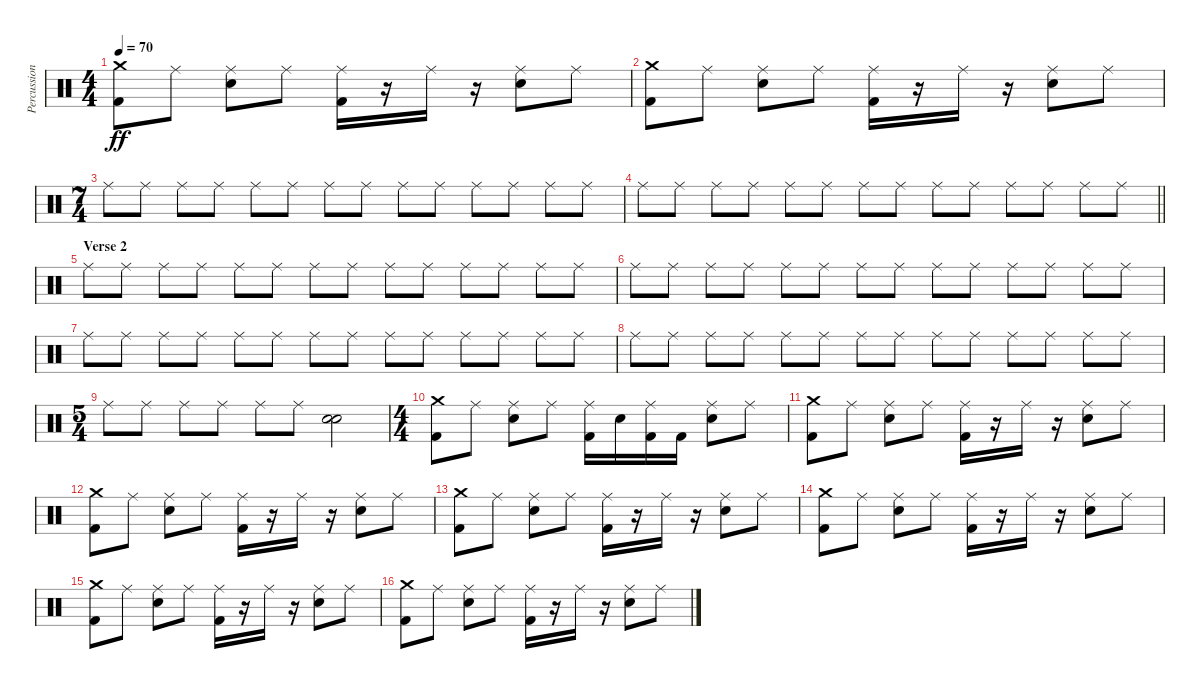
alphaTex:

\track ("Percussion" "Percussion") {instrument percussion}
\staff {score}
\articulation defaults
\ts (4 4)
\tempo 70
\clef neutral
\ks c
("Crash medium (hit)" "Kick (hit) 2").8{dy ff} "Ride (middle)".8 ("Ride (middle)" "Electric Snare (hit)").8 "Ride (middle)".8 ("Ride (middle)" "Kick (hit) 2").16 r.16 "Ride (middle)".16 r.16 ("Ride (middle)" "Electric Snare (hit)").8 "Ride (middle)".8 |
("Crash medium (hit)" "Kick (hit) 2").8 "Ride (middle)".8 ("Ride (middle)" "Electric Snare (hit)").8 "Ride (middle)".8 ("Ride (middle)" "Kick (hit) 2").16 r.16 "Ride (middle)".16 r.16 ("Ride (middle)" "Electric Snare (hit)").8 "Ride (middle)".8 |
\ts (7 4)
"Ride (middle)".8 "Ride (middle)".8 "Ride (middle)".8 "Ride (middle)".8 "Ride (middle)".8 "Ride (middle)".8 "Ride (middle)".8 "Ride (middle)".8 "Ride (middle)".8 "Ride (middle)".8 "Ride (middle)".8 "Ride (middle)".8 "Ride (middle)".8 "Ride (middle)".8 |
\barLineRight lightlight "Ride (middle)".8 "Ride (middle)".8 "Ride (middle)".8 "Ride (middle)".8 "Ride (middle)".8 "Ride (middle)".8 "Ride (middle)".8 "Ride (middle)".8 "Ride (middle)".8 "Ride (middle)".8 "Ride (middle)".8 "Ride (middle)".8 "Ride (middle)".8 "Ride (middle)".8
|
\section ("" "Verse 2")
"Ride (middle)".8 "Ride (middle)".8 "Ride (middle)".8 "Ride (middle)".8 "Ride (middle)".8 "Ride (middle)".8 "Ride (middle)".8 "Ride (middle)".8 "Ride (middle)".8 "Ride (middle)".8 "Ride (middle)".8 "Ride (middle)".8 "Ride (middle)".8 "Ride (middle)".8 |
"Ride (middle)".8 "Ride (middle)".8 "Ride (middle)".8 "Ride (middle)".8 "Ride (middle)".8 "Ride (middle)".8 "Ride (middle)".8 "Ride (middle)".8 "Ride (middle)".8 "Ride (middle)".8 "Ride (middle)".8 "Ride (middle)".8 "Ride (middle)".8 "Ride (middle)".8 |
"Ride (middle)".8 "Ride (middle)".8 "Ride (middle)".8 "Ride (middle)".8 "Ride (middle)".8 "Ride (middle)".8 "Ride (middle)".8 "Ride (middle)".8 "Ride (middle)".8 "Ride (middle)".8 "Ride (middle)".8 "Ride (middle)".8 "Ride (middle)".8 "Ride (middle)".8 |
"Ride (middle)".8 "Ride (middle)".8 "Ride (middle)".8 "Ride (middle)".8 "Ride (middle)".8 "Ride (middle)".8 "Ride (middle)".8 "Ride (middle)".8 "Ride (middle)".8 "Ride (middle)".8 "Ride (middle)".8 "Ride (middle)".8 "Ride (middle)".8 "Ride (middle)".8 |
\ts (5 4)
"Ride (middle)".8 "Ride (middle)".8 "Ride (middle)".8 "Ride (middle)".8 "Ride (middle)".8 "Ride (middle)".8 ("Electric Snare (hit)" "Electric Snare (hit)").2 |
\ts (4 4)
("Crash medium (hit)" "Kick (hit) 2").8 "Ride (middle)".8 ("Ride (middle)" "Electric Snare (hit)").8 "Ride (middle)".8 ("Ride (middle)" "Kick (hit) 2").16 "Electric Snare (hit)".16 ("Ride (middle)" "Kick (hit) 2").16 "Kick (hit) 2".16 ("Ride (middle)" "Electric Snare (hit)").8 "Ride (middle)".8 |
("Crash medium (hit)" "Kick (hit) 2").8 "Ride (middle)".8 ("Ride (middle)" "Electric Snare (hit)").8 "Ride (middle)".8 ("Ride (middle)" "Kick (hit) 2").16 r.16 "Ride (middle)".16 r.16 ("Ride (middle)" "Electric Snare (hit)").8 "Ride (middle)".8 |
("Crash medium (hit)" "Kick (hit) 2").8 "Ride (middle)".8 ("Ride (middle)" "Electric Snare (hit)").8 "Ride (middle)".8 ("Ride (middle)" "Kick (hit) 2").16 r.16 "Ride (middle)".16 r.16 ("Ride (middle)" "Electric Snare (hit)").8 "Ride (middle)".8 |
("Crash medium (hit)" "Kick (hit) 2").8 "Ride (middle)".8 ("Ride (middle)" "Electric Snare (hit)").8 "Ride (middle)".8 ("Ride (middle)" "Kick (hit) 2").16 r.16 "Ride (middle)".16 r.16 ("Ride (middle)" "Electric Snare (hit)").8 "Ride (middle)".8 |
("Crash medium (hit)" "Kick (hit) 2").8 "Ride (middle)".8 ("Ride (middle)" "Electric Snare (hit)").8 "Ride (middle)".8 ("Ride (middle)" "Kick (hit) 2").16 r.16 "Ride (middle)".16 r.16 ("Ride (middle)" "Electric Snare (hit)").8 "Ride (middle)".8 |
("Crash medium (hit)" "Kick (hit) 2").8 "Ride (middle)".8 ("Ride (middle)" "Electric Snare (hit)").8 "Ride (middle)".8 ("Ride (middle)" "Kick (hit) 2").16 r.16 "Ride (middle)".16 r.16 ("Ride (middle)" "Electric Snare (hit)").8 "Ride (middle)".8 |
("Crash medium (hit)" "Kick (hit) 2").8 "Ride (middle)".8 ("Ride (middle)" "Electric Snare (hit)").8 "Ride (middle)".8 ("Ride (middle)" "Kick (hit) 2").16 r.16 "Ride (middle)".16 r.16 ("Ride (middle)" "Electric Snare (hit)").8 "Ride (middle)".8
